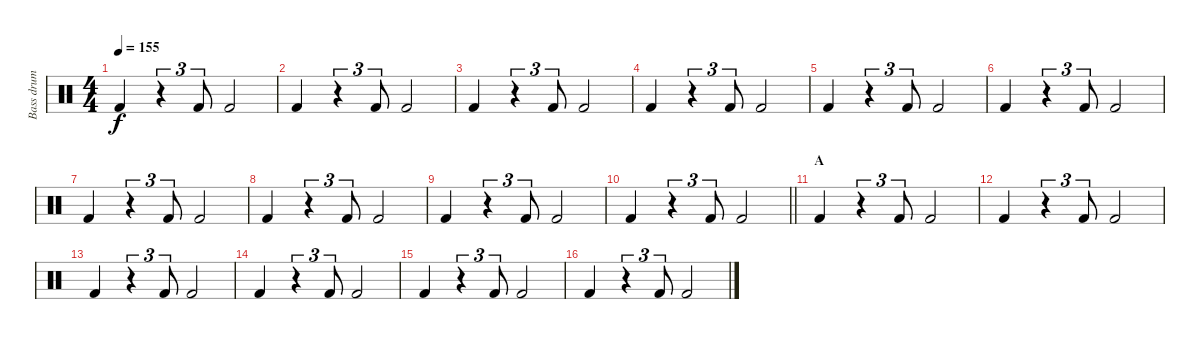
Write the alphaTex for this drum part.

\track ("Bass drum" "Bass drum") {instrument percussion}
\staff {score}
\articulation defaults
\ts (4 4)
\tempo 155
\clef neutral
\ks c "Kick (hit) 2".4{dy f}
r.4{tu (3 2)} "Kick (hit) 2".8{tu (3 2)} "Kick (hit) 2".2 |
"Kick (hit) 2".4 r.4{tu (3 2)} "Kick (hit) 2".8{tu (3 2)} "Kick (hit) 2".2 |
"Kick (hit) 2".4 r.4{tu (3 2)} "Kick (hit) 2".8{tu (3 2)} "Kick (hit) 2".2 |
"Kick (hit) 2".4 r.4{tu (3 2)} "Kick (hit) 2".8{tu (3 2)} "Kick (hit) 2".2 |
"Kick (hit) 2".4 r.4{tu (3 2)} "Kick (hit) 2".8{tu (3 2)} "Kick (hit) 2".2 |
"Kick (hit) 2".4 r.4{tu (3 2)} "Kick (hit) 2".8{tu (3 2)} "Kick (hit) 2".2 |
"Kick (hit) 2".4 r.4{tu (3 2)} "Kick (hit) 2".8{tu (3 2)} "Kick (hit) 2".2 |
"Kick (hit) 2".4 r.4{tu (3 2)} "Kick (hit) 2".8{tu (3 2)} "Kick (hit) 2".2 |
"Kick (hit) 2".4 r.4{tu (3 2)} "Kick (hit) 2".8{tu (3 2)} "Kick (hit) 2".2 |
\barLineRight lightlight "Kick (hit) 2".4
r.4{tu (3 2)} "Kick (hit) 2".8{tu (3 2)} "Kick (hit) 2".2 |
\section ("" "A")
"Kick (hit) 2".4 r.4{tu (3 2)} "Kick (hit) 2".8{tu (3 2)} "Kick (hit) 2".2 |
"Kick (hit) 2".4 r.4{tu (3 2)} "Kick (hit) 2".8{tu (3 2)} "Kick (hit) 2".2 |
"Kick (hit) 2".4 r.4{tu (3 2)} "Kick (hit) 2".8{tu (3 2)} "Kick (hit) 2".2 |
"Kick (hit) 2".4 r.4{tu (3 2)} "Kick (hit) 2".8{tu (3 2)} "Kick (hit) 2".2 |
"Kick (hit) 2".4 r.4{tu (3 2)} "Kick (hit) 2".8{tu (3 2)} "Kick (hit) 2".2 |
"Kick (hit) 2".4 r.4{tu (3 2)} "Kick (hit) 2".8{tu (3 2)} "Kick (hit) 2".2
